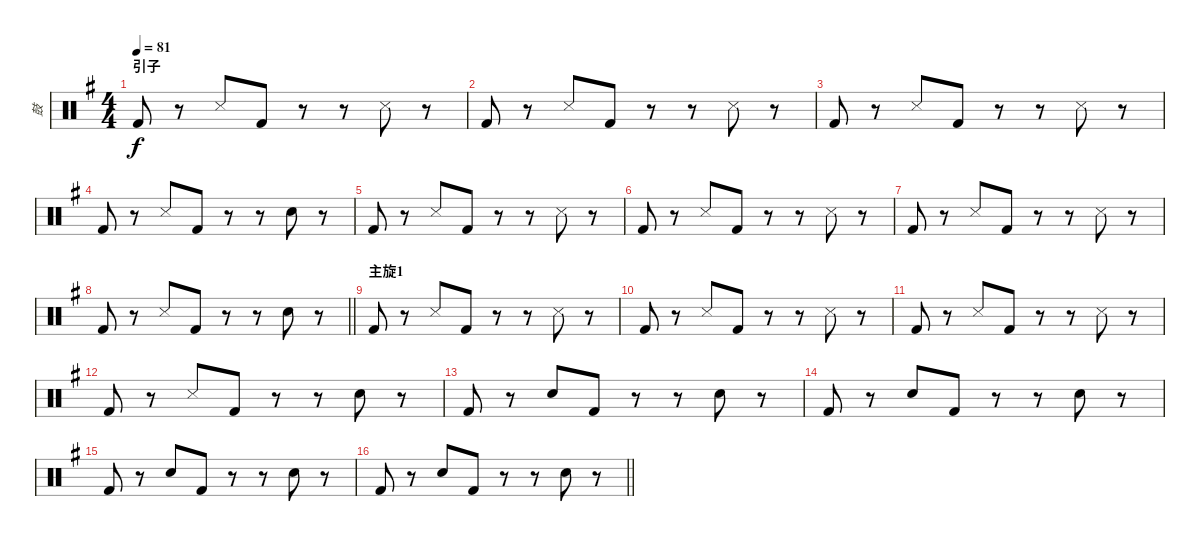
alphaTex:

\track ("鼓" "鼓") {instrument percussion}
\staff {score}
\articulation defaults
\ts (4 4)
\section ("" "引子")
\tempo 81
\clef neutral
\ks g "Kick (hit) 2".8{dy f}
r.8 "Metronome (hit)".8 "Kick (hit) 2".8 r.8 r.8 "Metronome (hit)".8 r.8 |
"Kick (hit) 2".8 r.8 "Metronome (hit)".8 "Kick (hit) 2".8 r.8 r.8 "Metronome (hit)".8 r.8 |
"Kick (hit) 2".8 r.8 "Metronome (hit)".8 "Kick (hit) 2".8 r.8 r.8 "Metronome (hit)".8 r.8 |
"Kick (hit) 2".8 r.8 "Metronome (hit)".8 "Kick (hit) 2".8 r.8 r.8 "Electric Snare (hit)".8 r.8 |
"Kick (hit) 2".8 r.8 "Metronome (hit)".8 "Kick (hit) 2".8 r.8 r.8 "Metronome (hit)".8 r.8 |
"Kick (hit) 2".8 r.8 "Metronome (hit)".8 "Kick (hit) 2".8 r.8 r.8 "Metronome (hit)".8 r.8 |
"Kick (hit) 2".8 r.8 "Metronome (hit)".8 "Kick (hit) 2".8 r.8 r.8 "Metronome (hit)".8 r.8 |
\barLineRight lightlight "Kick (hit) 2".8
r.8 "Metronome (hit)".8 "Kick (hit) 2".8 r.8 r.8 "Electric Snare (hit)".8 r.8 |
\section ("" "主旋1")
"Kick (hit) 2".8 r.8 "Metronome (hit)".8 "Kick (hit) 2".8 r.8 r.8 "Metronome (hit)".8 r.8 |
"Kick (hit) 2".8 r.8 "Metronome (hit)".8 "Kick (hit) 2".8 r.8 r.8 "Metronome (hit)".8 r.8 |
"Kick (hit) 2".8 r.8 "Metronome (hit)".8 "Kick (hit) 2".8 r.8 r.8 "Metronome (hit)".8 r.8 |
"Kick (hit) 2".8 r.8 "Metronome (hit)".8 "Kick (hit) 2".8 r.8 r.8 "Electric Snare (hit)".8 r.8 |
"Kick (hit) 2".8 r.8 "Electric Snare (hit)".8 "Kick (hit) 2".8 r.8 r.8 "Electric Snare (hit)".8 r.8 |
"Kick (hit) 2".8 r.8 "Electric Snare (hit)".8 "Kick (hit) 2".8 r.8 r.8 "Electric Snare (hit)".8 r.8 |
"Kick (hit) 2".8 r.8 "Electric Snare (hit)".8 "Kick (hit) 2".8 r.8 r.8 "Electric Snare (hit)".8 r.8 |
\barLineRight lightlight "Kick (hit) 2".8
r.8 "Electric Snare (hit)".8 "Kick (hit) 2".8 r.8 r.8 "Electric Snare (hit)".8 r.8
